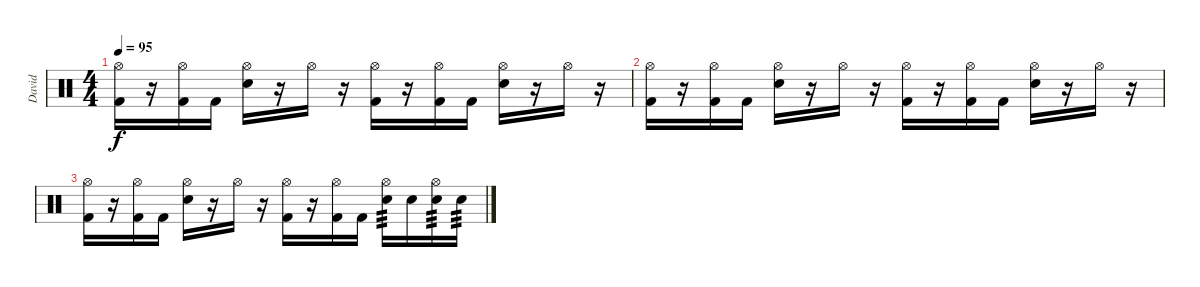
\track ("David" "David") {instrument percussion}
\staff {score}
\articulation defaults
\ts (4 4)
\tempo 95
\clef neutral
\ks c
("Hi-Hat (open)" "Kick (hit) 2").16{dy f} r.16 ("Hi-Hat (open)" "Kick (hit) 2").16 "Kick (hit) 2".16 ("Hi-Hat (open)" "Snare (hit) 2").16 r.16 "Hi-Hat (open)".16 r.16 ("Hi-Hat (open)" "Kick (hit) 2").16 r.16 ("Hi-Hat (open)" "Kick (hit) 2").16 "Kick (hit) 2".16 ("Hi-Hat (open)" "Snare (hit) 2").16 r.16 "Hi-Hat (open)".16 r.16 |
("Hi-Hat (open)" "Kick (hit) 2").16 r.16 ("Hi-Hat (open)" "Kick (hit) 2").16 "Kick (hit) 2".16 ("Hi-Hat (open)" "Snare (hit) 2").16 r.16 "Hi-Hat (open)".16 r.16 ("Hi-Hat (open)" "Kick (hit) 2").16 r.16 ("Hi-Hat (open)" "Kick (hit) 2").16 "Kick (hit) 2".16 ("Hi-Hat (open)" "Snare (hit) 2").16 r.16 "Hi-Hat (open)".16 r.16 |
("Hi-Hat (open)" "Kick (hit) 2").16 r.16 ("Hi-Hat (open)" "Kick (hit) 2").16 "Kick (hit) 2".16 ("Hi-Hat (open)" "Snare (hit) 2").16 r.16 "Hi-Hat (open)".16 r.16 ("Hi-Hat (open)" "Kick (hit) 2").16 r.16 ("Hi-Hat (open)" "Kick (hit) 2").16 "Kick (hit) 2".16 ("Hi-Hat (open)" "Snare (hit) 2").16{tp 3} "Snare (hit) 2".16 ("Hi-Hat (open)" "Snare (hit) 2").16{tp 3} "Snare (hit) 2".16{tp 3}
